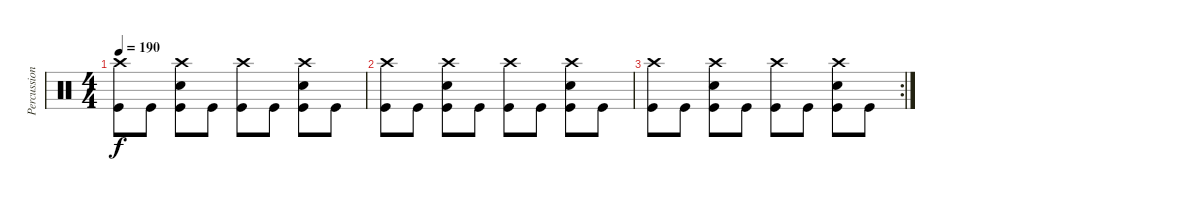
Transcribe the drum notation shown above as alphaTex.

\track ("Percussion" "Percussion") {instrument percussion}
\staff {score}
\articulation defaults
\ts (4 4)
\tempo 190
\clef neutral
\ks c
("Crash high (hit)" "Kick (hit)").8{dy f} "Kick (hit)".8 ("Crash high (hit)" "Snare (hit) 2" "Kick (hit)").8 "Kick (hit)".8 ("Crash high (hit)" "Kick (hit)").8 "Kick (hit)".8 ("Crash high (hit)" "Snare (hit) 2" "Kick (hit)").8 "Kick (hit)".8 |
("Crash high (hit)" "Kick (hit)").8 "Kick (hit)".8 ("Crash high (hit)" "Snare (hit) 2" "Kick (hit)").8 "Kick (hit)".8 ("Crash high (hit)" "Kick (hit)").8 "Kick (hit)".8 ("Crash high (hit)" "Snare (hit) 2" "Kick (hit)").8 "Kick (hit)".8 |
\rc 2
("Crash high (hit)" "Kick (hit)").8 "Kick (hit)".8 ("Crash high (hit)" "Snare (hit) 2" "Kick (hit)").8 "Kick (hit)".8 ("Crash high (hit)" "Kick (hit)").8 "Kick (hit)".8 ("Crash high (hit)" "Snare (hit) 2" "Kick (hit)").8 "Kick (hit)".8
